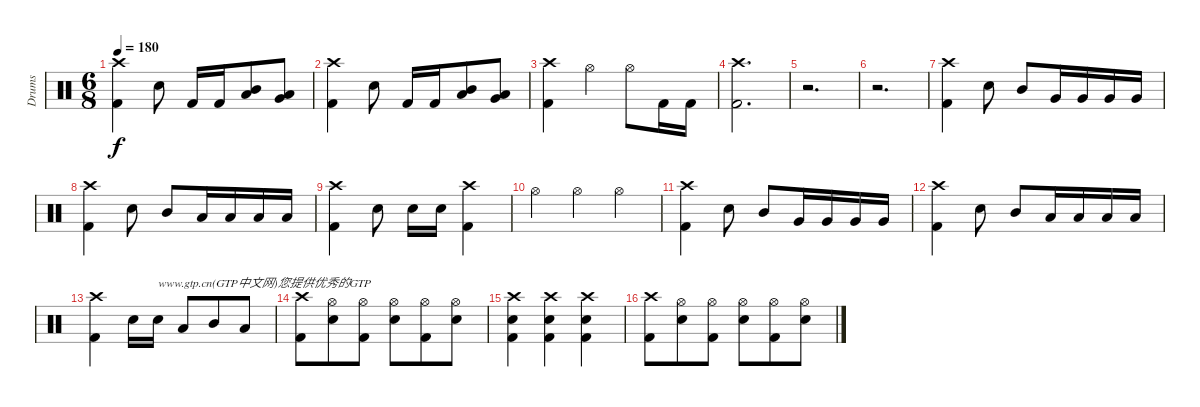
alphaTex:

\track ("Drums" "Drums") {instrument percussion}
\staff {score}
\articulation defaults
\ts (6 8)
\tempo 180
\clef neutral
\ks c
("Crash high (hit)" "Kick (hit) 2").4{dy f} "Snare (hit) 2".8 "Kick (hit) 2".16 "Kick (hit) 2".16 ("Mid Tom (hit)" "Low Tom (hit)").8 ("Low Tom (hit)" "Very Low Tom (hit)").8 |
("Crash high (hit)" "Kick (hit) 2").4 "Snare (hit) 2".8 "Kick (hit) 2".16 "Kick (hit) 2".16 ("Mid Tom (hit)" "Low Tom (hit)").8 ("Low Tom (hit)" "Very Low Tom (hit)").8 |
("Crash high (hit)" "Kick (hit) 2").4 "Hi-Hat (open)".4 "Hi-Hat (open)".8 "Kick (hit) 2".16 "Kick (hit) 2".16 |
("Crash high (hit)" "Kick (hit) 2").2{d} |
r.2{d} |
r.2{d} |
("Crash high (hit)" "Kick (hit) 2").4 "Snare (hit) 2".8 "Mid Tom (hit)".8 "Very Low Tom (hit)".16 "Very Low Tom (hit)".16 "Very Low Tom (hit)".16 "Very Low Tom (hit)".16 |
("Crash high (hit)" "Kick (hit) 2").4 "Snare (hit) 2".8 "Mid Tom (hit)".8 "Low Tom (hit)".16 "Low Tom (hit)".16 "Low Tom (hit)".16 "Low Tom (hit)".16 |
("Crash high (hit)" "Kick (hit) 2").4 "Snare (hit) 2".8 "Snare (hit) 2".16 "Snare (hit) 2".16 ("Crash high (hit)" "Kick (hit) 2").4 |
"Hi-Hat (open)".4 "Hi-Hat (open)".4 "Hi-Hat (open)".4 |
("Crash high (hit)" "Kick (hit) 2").4 "Snare (hit) 2".8 "Mid Tom (hit)".8 "Very Low Tom (hit)".16 "Very Low Tom (hit)".16 "Very Low Tom (hit)".16 "Very Low Tom (hit)".16 |
("Crash high (hit)" "Kick (hit) 2").4 "Snare (hit) 2".8 "Mid Tom (hit)".8 "Low Tom (hit)".16 "Low Tom (hit)".16 "Low Tom (hit)".16 "Low Tom (hit)".16 |
("Crash high (hit)" "Kick (hit) 2").4 "Snare (hit) 2".16 "Snare (hit) 2".16{txt "www.gtp.cn(GTP中文网)您提供优秀的GTP"} "Low Tom (hit)".8 "Mid Tom (hit)".8 "Low Tom (hit)".8 |
("Crash high (hit)" "Kick (hit) 2").8 ("Hi-Hat (open)" "Snare (hit) 2").8 ("Hi-Hat (open)" "Kick (hit) 2").8 ("Hi-Hat (open)" "Snare (hit) 2").8 ("Hi-Hat (open)" "Kick (hit) 2").8 ("Hi-Hat (open)" "Snare (hit) 2").8 |
("Crash high (hit)" "Snare (hit) 2" "Kick (hit) 2").4 ("Crash high (hit)" "Snare (hit) 2" "Kick (hit) 2").4 ("Crash high (hit)" "Snare (hit) 2" "Kick (hit) 2").4 |
("Crash high (hit)" "Kick (hit) 2").8 ("Hi-Hat (open)" "Snare (hit) 2").8 ("Hi-Hat (open)" "Kick (hit) 2").8 ("Hi-Hat (open)" "Snare (hit) 2").8 ("Hi-Hat (open)" "Kick (hit) 2").8 ("Hi-Hat (open)" "Snare (hit) 2").8
